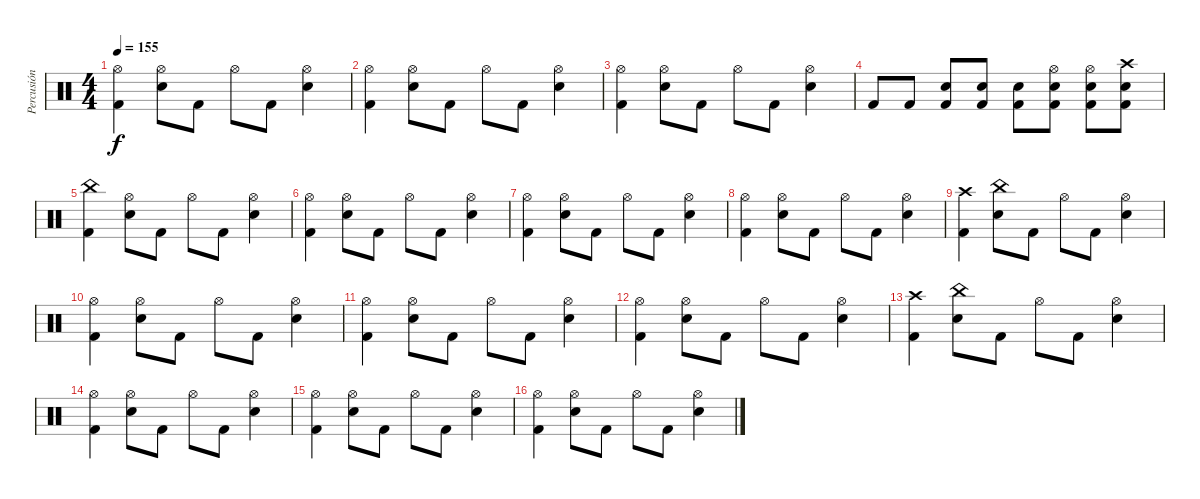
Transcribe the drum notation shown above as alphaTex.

\track ("Percusión" "Percusión") {instrument percussion}
\staff {score}
\articulation defaults
\ts (4 4)
\tempo 155
\clef neutral
\ks c
("Hi-Hat (open)" "Kick (hit) 2").4{dy f} ("Hi-Hat (open)" "Electric Snare (hit)").8 "Kick (hit) 2".8 "Hi-Hat (open)".8 "Kick (hit) 2".8 ("Hi-Hat (open)" "Electric Snare (hit)").4 |
("Hi-Hat (open)" "Kick (hit) 2").4 ("Hi-Hat (open)" "Electric Snare (hit)").8 "Kick (hit) 2".8 "Hi-Hat (open)".8 "Kick (hit) 2".8 ("Hi-Hat (open)" "Electric Snare (hit)").4 |
("Hi-Hat (open)" "Kick (hit) 2").4 ("Hi-Hat (open)" "Electric Snare (hit)").8 "Kick (hit) 2".8 "Hi-Hat (open)".8 "Kick (hit) 2".8 ("Hi-Hat (open)" "Electric Snare (hit)").4 |
"Kick (hit) 2".8 "Kick (hit) 2".8 ("Electric Snare (hit)" "Kick (hit) 2").8 ("Electric Snare (hit)" "Kick (hit) 2").8 ("Electric Snare (hit)" "Kick (hit) 2").8 ("Hi-Hat (open)" "Electric Snare (hit)" "Kick (hit) 2").8 ("Hi-Hat (open)" "Electric Snare (hit)" "Kick (hit) 2").8 ("Crash high (hit)" "Electric Snare (hit)" "Kick (hit) 2").8 |
("China (hit)" "Kick (hit) 2").4 ("Hi-Hat (open)" "Electric Snare (hit)").8 "Kick (hit) 2".8 "Hi-Hat (open)".8 "Kick (hit) 2".8 ("Hi-Hat (open)" "Electric Snare (hit)").4 |
("Hi-Hat (open)" "Kick (hit) 2").4 ("Hi-Hat (open)" "Electric Snare (hit)").8 "Kick (hit) 2".8 "Hi-Hat (open)".8 "Kick (hit) 2".8 ("Hi-Hat (open)" "Electric Snare (hit)").4 |
("Hi-Hat (open)" "Kick (hit) 2").4 ("Hi-Hat (open)" "Electric Snare (hit)").8 "Kick (hit) 2".8 "Hi-Hat (open)".8 "Kick (hit) 2".8 ("Hi-Hat (open)" "Electric Snare (hit)").4 |
("Hi-Hat (open)" "Kick (hit) 2").4 ("Hi-Hat (open)" "Electric Snare (hit)").8 "Kick (hit) 2".8 "Hi-Hat (open)".8 "Kick (hit) 2".8 ("Hi-Hat (open)" "Electric Snare (hit)").4 |
("Crash high (hit)" "Kick (hit) 2").4 ("China (hit)" "Electric Snare (hit)").8 "Kick (hit) 2".8 "Hi-Hat (open)".8 "Kick (hit) 2".8 ("Hi-Hat (open)" "Electric Snare (hit)").4 |
("Hi-Hat (open)" "Kick (hit) 2").4 ("Hi-Hat (open)" "Electric Snare (hit)").8 "Kick (hit) 2".8 "Hi-Hat (open)".8 "Kick (hit) 2".8 ("Hi-Hat (open)" "Electric Snare (hit)").4 |
("Hi-Hat (open)" "Kick (hit) 2").4 ("Hi-Hat (open)" "Electric Snare (hit)").8 "Kick (hit) 2".8 "Hi-Hat (open)".8 "Kick (hit) 2".8 ("Hi-Hat (open)" "Electric Snare (hit)").4 |
("Hi-Hat (open)" "Kick (hit) 2").4 ("Hi-Hat (open)" "Electric Snare (hit)").8 "Kick (hit) 2".8 "Hi-Hat (open)".8 "Kick (hit) 2".8 ("Hi-Hat (open)" "Electric Snare (hit)").4 |
("Crash high (hit)" "Kick (hit) 2").4 ("China (hit)" "Electric Snare (hit)").8 "Kick (hit) 2".8 "Hi-Hat (open)".8 "Kick (hit) 2".8 ("Hi-Hat (open)" "Electric Snare (hit)").4 |
("Hi-Hat (open)" "Kick (hit) 2").4 ("Hi-Hat (open)" "Electric Snare (hit)").8 "Kick (hit) 2".8 "Hi-Hat (open)".8 "Kick (hit) 2".8 ("Hi-Hat (open)" "Electric Snare (hit)").4 |
("Hi-Hat (open)" "Kick (hit) 2").4 ("Hi-Hat (open)" "Electric Snare (hit)").8 "Kick (hit) 2".8 "Hi-Hat (open)".8 "Kick (hit) 2".8 ("Hi-Hat (open)" "Electric Snare (hit)").4 |
("Hi-Hat (open)" "Kick (hit) 2").4 ("Hi-Hat (open)" "Electric Snare (hit)").8 "Kick (hit) 2".8 "Hi-Hat (open)".8 "Kick (hit) 2".8 ("Hi-Hat (open)" "Electric Snare (hit)").4
